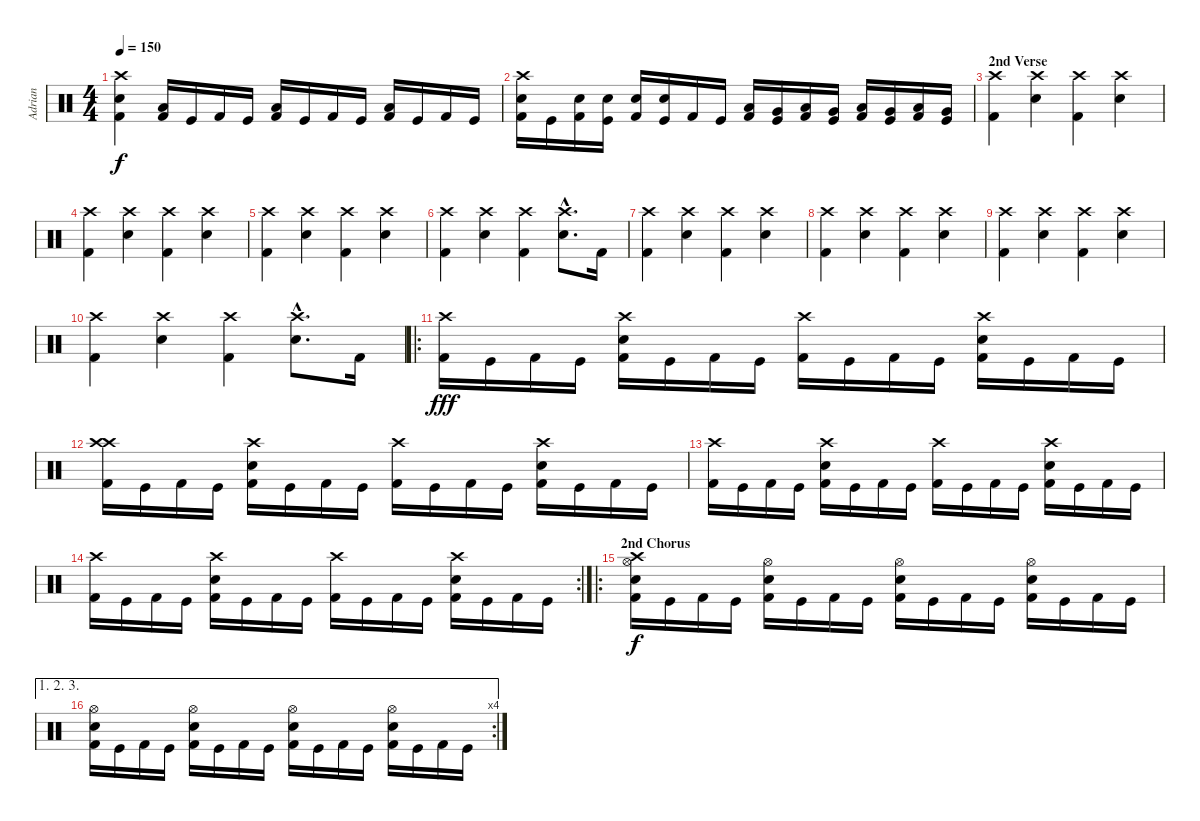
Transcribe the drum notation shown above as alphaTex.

\track ("Adrian" "Adrian") {instrument percussion}
\staff {score}
\articulation defaults
\ts (4 4)
\tempo 150
\clef neutral
\ks c
("Crash high (hit)" "Electric Snare (hit)" "Kick (hit) 2").4{dy f} ("Low Floor Tom (hit)" "Kick (hit) 2").16 "Kick (hit)".16 "Kick (hit) 2".16 "Kick (hit)".16 ("Low Floor Tom (hit)" "Kick (hit) 2").16 "Kick (hit)".16 "Kick (hit) 2".16 "Kick (hit)".16 ("Low Floor Tom (hit)" "Kick (hit) 2").16 "Kick (hit)".16 "Kick (hit) 2".16 "Kick (hit)".16 |
("Crash high (hit)" "Electric Snare (hit)" "Kick (hit) 2").16 "Kick (hit)".16 ("Electric Snare (hit)" "Kick (hit) 2").16 ("Electric Snare (hit)" "Kick (hit)").16 ("Electric Snare (hit)" "Kick (hit) 2").16 ("Electric Snare (hit)" "Kick (hit)").16 "Kick (hit) 2".16 "Kick (hit)".16 ("Low Tom (hit)" "Kick (hit) 2").16 ("Very Low Tom (hit)" "Kick (hit)").16 ("Low Tom (hit)" "Kick (hit) 2").16 ("Very Low Tom (hit)" "Kick (hit)").16 ("Low Tom (hit)" "Kick (hit) 2").16 ("Very Low Tom (hit)" "Kick (hit)").16 ("Low Tom (hit)" "Kick (hit) 2").16 ("Very Low Tom (hit)" "Kick (hit)").16 |
\section ("" "2nd Verse")
("Crash high (hit)" "Kick (hit) 2").4 ("Crash high (hit)" "Electric Snare (hit)").4 ("Crash high (hit)" "Kick (hit) 2").4 ("Crash high (hit)" "Electric Snare (hit)").4 |
("Crash high (hit)" "Kick (hit) 2").4 ("Crash high (hit)" "Electric Snare (hit)").4 ("Crash high (hit)" "Kick (hit) 2").4 ("Crash high (hit)" "Electric Snare (hit)").4 |
("Crash high (hit)" "Kick (hit) 2").4 ("Crash high (hit)" "Electric Snare (hit)").4 ("Crash high (hit)" "Kick (hit) 2").4 ("Crash high (hit)" "Electric Snare (hit)").4 |
("Crash high (hit)" "Kick (hit) 2").4 ("Crash high (hit)" "Electric Snare (hit)").4 ("Crash high (hit)" "Kick (hit) 2").4 ("Crash high (hit)"{hac} "Electric Snare (hit)"{hac}).8{d} "Kick (hit) 2".16 |
("Crash high (hit)" "Kick (hit) 2").4 ("Crash high (hit)" "Electric Snare (hit)").4 ("Crash high (hit)" "Kick (hit) 2").4 ("Crash high (hit)" "Electric Snare (hit)").4 |
("Crash high (hit)" "Kick (hit) 2").4 ("Crash high (hit)" "Electric Snare (hit)").4 ("Crash high (hit)" "Kick (hit) 2").4 ("Crash high (hit)" "Electric Snare (hit)").4 |
("Crash high (hit)" "Kick (hit) 2").4 ("Crash high (hit)" "Electric Snare (hit)").4 ("Crash high (hit)" "Kick (hit) 2").4 ("Crash high (hit)" "Electric Snare (hit)").4 |
("Crash high (hit)" "Kick (hit) 2").4 ("Crash high (hit)" "Electric Snare (hit)").4 ("Crash high (hit)" "Kick (hit) 2").4 ("Crash high (hit)"{hac} "Electric Snare (hit)"{hac}).8{d} "Kick (hit) 2".16 |
\ro
("Crash high (hit)" "Kick (hit) 2").16{dy fff} "Kick (hit)".16 "Kick (hit) 2".16 "Kick (hit)".16 ("Crash high (hit)" "Electric Snare (hit)" "Kick (hit) 2").16 "Kick (hit)".16 "Kick (hit) 2".16 "Kick (hit)".16 ("Crash high (hit)" "Kick (hit) 2").16 "Kick (hit)".16 "Kick (hit) 2".16 "Kick (hit)".16 ("Crash high (hit)" "Electric Snare (hit)" "Kick (hit) 2").16 "Kick (hit)".16 "Kick (hit) 2".16 "Kick (hit)".16 |
("Crash high (hit)" "Crash high (hit)" "Kick (hit) 2").16 "Kick (hit)".16 "Kick (hit) 2".16 "Kick (hit)".16 ("Crash high (hit)" "Electric Snare (hit)" "Kick (hit) 2").16 "Kick (hit)".16 "Kick (hit) 2".16 "Kick (hit)".16 ("Crash high (hit)" "Kick (hit) 2").16 "Kick (hit)".16 "Kick (hit) 2".16 "Kick (hit)".16 ("Crash high (hit)" "Electric Snare (hit)" "Kick (hit) 2").16 "Kick (hit)".16 "Kick (hit) 2".16 "Kick (hit)".16 |
("Crash high (hit)" "Kick (hit) 2").16 "Kick (hit)".16 "Kick (hit) 2".16 "Kick (hit)".16 ("Crash high (hit)" "Electric Snare (hit)" "Kick (hit) 2").16 "Kick (hit)".16 "Kick (hit) 2".16 "Kick (hit)".16 ("Crash high (hit)" "Kick (hit) 2").16 "Kick (hit)".16 "Kick (hit) 2".16 "Kick (hit)".16 ("Crash high (hit)" "Electric Snare (hit)" "Kick (hit) 2").16 "Kick (hit)".16 "Kick (hit) 2".16 "Kick (hit)".16 |
\rc 2
("Crash high (hit)" "Kick (hit) 2").16 "Kick (hit)".16 "Kick (hit) 2".16 "Kick (hit)".16 ("Crash high (hit)" "Electric Snare (hit)" "Kick (hit) 2").16 "Kick (hit)".16 "Kick (hit) 2".16 "Kick (hit)".16 ("Crash high (hit)" "Kick (hit) 2").16 "Kick (hit)".16 "Kick (hit) 2".16 "Kick (hit)".16 ("Crash high (hit)" "Electric Snare (hit)" "Kick (hit) 2").16 "Kick (hit)".16 "Kick (hit) 2".16 "Kick (hit)".16 |
\ro
\section ("" "2nd Chorus")
("Hi-Hat (open)" "Crash high (hit)" "Electric Snare (hit)" "Kick (hit) 2").16{dy f} "Kick (hit)".16 "Kick (hit) 2".16 "Kick (hit)".16 ("Hi-Hat (open)" "Electric Snare (hit)" "Kick (hit) 2").16 "Kick (hit)".16 "Kick (hit) 2".16 "Kick (hit)".16 ("Hi-Hat (open)" "Electric Snare (hit)" "Kick (hit) 2").16 "Kick (hit)".16 "Kick (hit) 2".16 "Kick (hit)".16 ("Hi-Hat (open)" "Electric Snare (hit)" "Kick (hit) 2").16 "Kick (hit)".16 "Kick (hit) 2".16 "Kick (hit)".16 |
\ae (1 2 3)
\rc 4
("Hi-Hat (open)" "Electric Snare (hit)" "Kick (hit) 2").16 "Kick (hit)".16 "Kick (hit) 2".16 "Kick (hit)".16 ("Hi-Hat (open)" "Electric Snare (hit)" "Kick (hit) 2").16 "Kick (hit)".16 "Kick (hit) 2".16 "Kick (hit)".16 ("Hi-Hat (open)" "Electric Snare (hit)" "Kick (hit) 2").16 "Kick (hit)".16 "Kick (hit) 2".16 "Kick (hit)".16 ("Hi-Hat (open)" "Electric Snare (hit)" "Kick (hit) 2").16 "Kick (hit)".16 "Kick (hit) 2".16 "Kick (hit)".16
